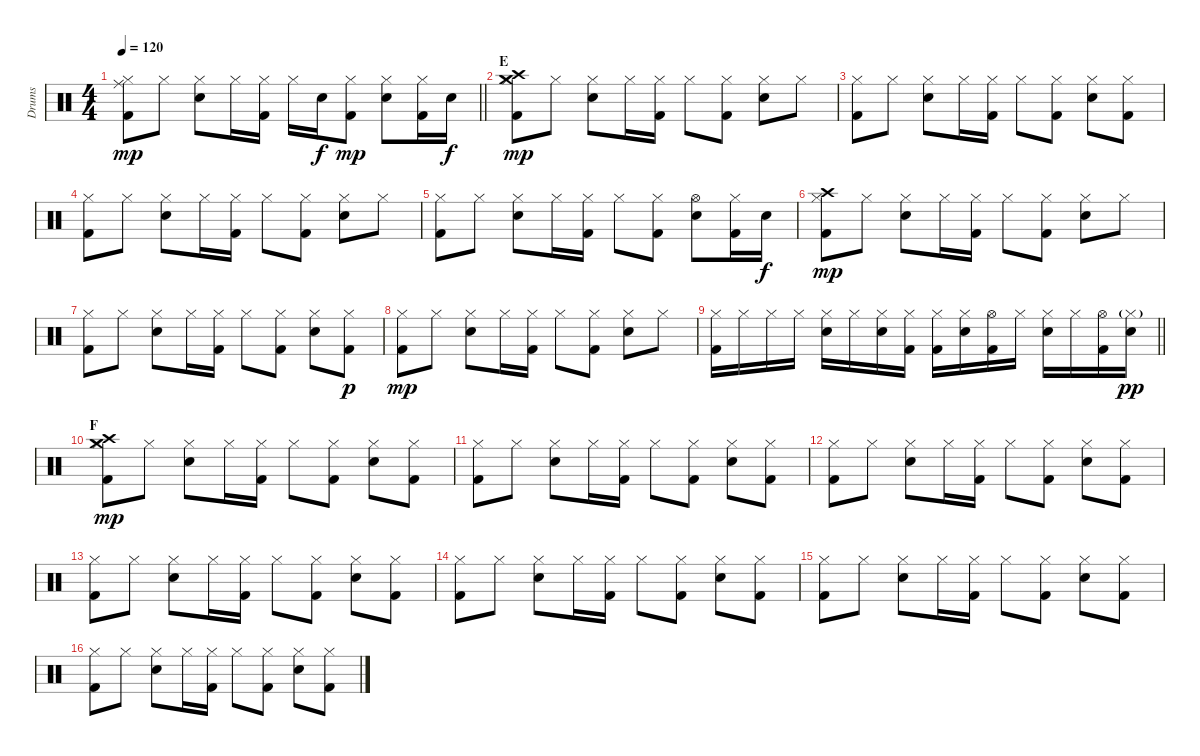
\track ("Drums" "Drums") {instrument percussion}
\staff {score}
\articulation defaults
\ts (4 4)
\tempo 120
\clef neutral
\barLineRight lightlight
\ks c
("Hi-Hat (closed)" "Ride (middle)" "Kick (hit) 2").8{dy mp} "Hi-Hat (closed)".8 ("Hi-Hat (closed)" "Electric Snare (hit)").8 "Hi-Hat (closed)".16 ("Hi-Hat (closed)" "Kick (hit) 2").16 "Hi-Hat (closed)".16 "Electric Snare (hit)".16{dy f} ("Hi-Hat (closed)" "Kick (hit) 2").8{dy mp} ("Hi-Hat (closed)" "Electric Snare (hit)").8 ("Hi-Hat (closed)" "Kick (hit) 2").16 "Electric Snare (hit)".16{dy f} |
\section ("" "E")
("Hi-Hat (closed)" "Crash medium (hit)" "Crash high (hit)" "Kick (hit) 2").8{dy mp} "Hi-Hat (closed)".8 ("Hi-Hat (closed)" "Electric Snare (hit)").8 "Hi-Hat (closed)".16 ("Hi-Hat (closed)" "Kick (hit) 2").16 "Hi-Hat (closed)".8 ("Hi-Hat (closed)" "Kick (hit) 2").8 ("Hi-Hat (closed)" "Electric Snare (hit)").8 "Hi-Hat (closed)".8 |
("Hi-Hat (closed)" "Kick (hit) 2").8 "Hi-Hat (closed)".8 ("Hi-Hat (closed)" "Electric Snare (hit)").8 "Hi-Hat (closed)".16 ("Hi-Hat (closed)" "Kick (hit) 2").16 "Hi-Hat (closed)".8 ("Hi-Hat (closed)" "Kick (hit) 2").8 ("Hi-Hat (closed)" "Electric Snare (hit)").8 ("Hi-Hat (closed)" "Kick (hit) 2").8 |
("Hi-Hat (closed)" "Kick (hit) 2").8 "Hi-Hat (closed)".8 ("Hi-Hat (closed)" "Electric Snare (hit)").8 "Hi-Hat (closed)".16 ("Hi-Hat (closed)" "Kick (hit) 2").16 "Hi-Hat (closed)".8 ("Hi-Hat (closed)" "Kick (hit) 2").8 ("Hi-Hat (closed)" "Electric Snare (hit)").8 "Hi-Hat (closed)".8 |
("Hi-Hat (closed)" "Kick (hit) 2").8 "Hi-Hat (closed)".8 ("Hi-Hat (closed)" "Electric Snare (hit)").8 "Hi-Hat (closed)".16 ("Hi-Hat (closed)" "Kick (hit) 2").16 "Hi-Hat (closed)".8 ("Hi-Hat (closed)" "Kick (hit) 2").8 ("Hi-Hat (open)" "Electric Snare (hit)").8 ("Hi-Hat (closed)" "Kick (hit) 2").16 "Electric Snare (hit)".16{dy f} |
("Hi-Hat (closed)" "Crash high (hit)" "Kick (hit) 2").8{dy mp} "Hi-Hat (closed)".8 ("Hi-Hat (closed)" "Electric Snare (hit)").8 "Hi-Hat (closed)".16 ("Hi-Hat (closed)" "Kick (hit) 2").16 "Hi-Hat (closed)".8 ("Hi-Hat (closed)" "Kick (hit) 2").8 ("Hi-Hat (closed)" "Electric Snare (hit)").8 "Hi-Hat (closed)".8 |
("Hi-Hat (closed)" "Kick (hit) 2").8 "Hi-Hat (closed)".8 ("Hi-Hat (closed)" "Electric Snare (hit)").8 "Hi-Hat (closed)".16 ("Hi-Hat (closed)" "Kick (hit) 2").16 "Hi-Hat (closed)".8 ("Hi-Hat (closed)" "Kick (hit) 2").8 ("Hi-Hat (closed)" "Electric Snare (hit)").8 ("Hi-Hat (closed)" "Kick (hit) 2").8{dy p} |
("Hi-Hat (closed)" "Kick (hit) 2").8{dy mp} "Hi-Hat (closed)".8 ("Hi-Hat (closed)" "Electric Snare (hit)").8 "Hi-Hat (closed)".16 ("Hi-Hat (closed)" "Kick (hit) 2").16 "Hi-Hat (closed)".8 ("Hi-Hat (closed)" "Kick (hit) 2").8 ("Hi-Hat (closed)" "Electric Snare (hit)").8 "Hi-Hat (closed)".8 |
\barLineRight lightlight
("Hi-Hat (closed)" "Kick (hit) 2").16 "Hi-Hat (closed)".16 "Hi-Hat (closed)".16 "Hi-Hat (closed)".16 ("Hi-Hat (closed)" "Electric Snare (hit)").16 "Hi-Hat (closed)".16 ("Hi-Hat (closed)" "Electric Snare (hit)").16 ("Hi-Hat (closed)" "Kick (hit) 2").16 ("Hi-Hat (closed)" "Kick (hit) 2").16 ("Hi-Hat (closed)" "Electric Snare (hit)").16 ("Hi-Hat (open)" "Kick (hit) 2").16 "Hi-Hat (closed)".16 ("Hi-Hat (closed)" "Electric Snare (hit)").16 "Hi-Hat (closed)".16 ("Hi-Hat (open)" "Kick (hit) 2").16 ("Hi-Hat (closed)"{g} "Electric Snare (hit)").16{dy pp} |
\section ("" "F")
("Hi-Hat (closed)" "Crash medium (hit)" "Crash high (hit)" "Kick (hit) 2").8{dy mp} "Hi-Hat (closed)".8 ("Hi-Hat (closed)" "Electric Snare (hit)").8 "Hi-Hat (closed)".16 ("Hi-Hat (closed)" "Kick (hit) 2").16 "Hi-Hat (closed)".8 ("Hi-Hat (closed)" "Kick (hit) 2").8 ("Hi-Hat (closed)" "Electric Snare (hit)").8 ("Hi-Hat (closed)" "Kick (hit) 2").8 |
("Hi-Hat (closed)" "Kick (hit) 2").8 "Hi-Hat (closed)".8 ("Hi-Hat (closed)" "Electric Snare (hit)").8 "Hi-Hat (closed)".16 ("Hi-Hat (closed)" "Kick (hit) 2").16 "Hi-Hat (closed)".8 ("Hi-Hat (closed)" "Kick (hit) 2").8 ("Hi-Hat (closed)" "Electric Snare (hit)").8 ("Hi-Hat (closed)" "Kick (hit) 2").8 |
("Hi-Hat (closed)" "Kick (hit) 2").8 "Hi-Hat (closed)".8 ("Hi-Hat (closed)" "Electric Snare (hit)").8 "Hi-Hat (closed)".16 ("Hi-Hat (closed)" "Kick (hit) 2").16 "Hi-Hat (closed)".8 ("Hi-Hat (closed)" "Kick (hit) 2").8 ("Hi-Hat (closed)" "Electric Snare (hit)").8 ("Hi-Hat (closed)" "Kick (hit) 2").8 |
("Hi-Hat (closed)" "Kick (hit) 2").8 "Hi-Hat (closed)".8 ("Hi-Hat (closed)" "Electric Snare (hit)").8 "Hi-Hat (closed)".16 ("Hi-Hat (closed)" "Kick (hit) 2").16 "Hi-Hat (closed)".8 ("Hi-Hat (closed)" "Kick (hit) 2").8 ("Hi-Hat (closed)" "Electric Snare (hit)").8 ("Hi-Hat (closed)" "Kick (hit) 2").8 |
("Hi-Hat (closed)" "Kick (hit) 2").8 "Hi-Hat (closed)".8 ("Hi-Hat (closed)" "Electric Snare (hit)").8 "Hi-Hat (closed)".16 ("Hi-Hat (closed)" "Kick (hit) 2").16 "Hi-Hat (closed)".8 ("Hi-Hat (closed)" "Kick (hit) 2").8 ("Hi-Hat (closed)" "Electric Snare (hit)").8 ("Hi-Hat (closed)" "Kick (hit) 2").8 |
("Hi-Hat (closed)" "Kick (hit) 2").8 "Hi-Hat (closed)".8 ("Hi-Hat (closed)" "Electric Snare (hit)").8 "Hi-Hat (closed)".16 ("Hi-Hat (closed)" "Kick (hit) 2").16 "Hi-Hat (closed)".8 ("Hi-Hat (closed)" "Kick (hit) 2").8 ("Hi-Hat (closed)" "Electric Snare (hit)").8 ("Hi-Hat (closed)" "Kick (hit) 2").8 |
("Hi-Hat (closed)" "Kick (hit) 2").8 "Hi-Hat (closed)".8 ("Hi-Hat (closed)" "Electric Snare (hit)").8 "Hi-Hat (closed)".16 ("Hi-Hat (closed)" "Kick (hit) 2").16 "Hi-Hat (closed)".8 ("Hi-Hat (closed)" "Kick (hit) 2").8 ("Hi-Hat (closed)" "Electric Snare (hit)").8 ("Hi-Hat (closed)" "Kick (hit) 2").8
